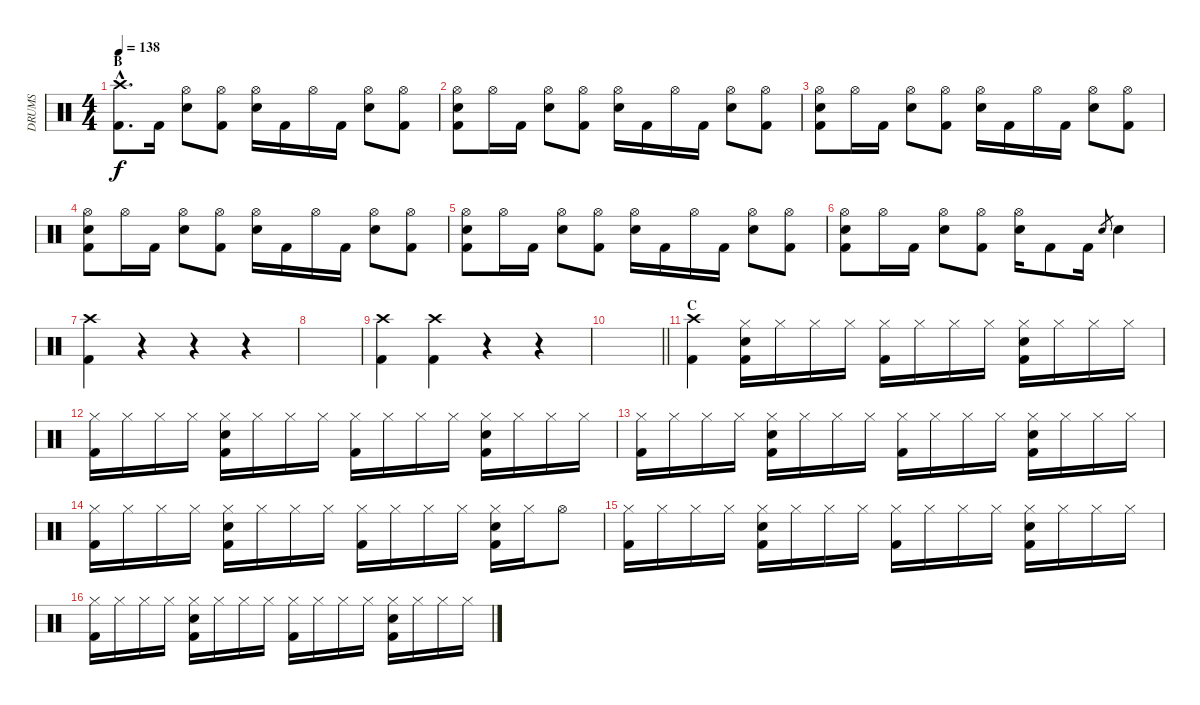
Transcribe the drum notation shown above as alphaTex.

\track ("DRUMS" "DRUMS") {instrument percussion}
\staff {score}
\articulation defaults
\ts (4 4)
\section ("" "B")
\tempo 138
\clef neutral
\ks c
("Crash high (hit)"{hac} "Kick (hit) 2"{hac}).8{d dy f} "Kick (hit) 2".16 ("Hi-Hat (open)" "Snare (hit) 2").8 ("Hi-Hat (open)" "Kick (hit) 2").8 ("Hi-Hat (open)" "Snare (hit) 2").16 "Kick (hit) 2".16 "Hi-Hat (open)".16 "Kick (hit) 2".16 ("Hi-Hat (open)" "Snare (hit) 2").8 ("Hi-Hat (open)" "Kick (hit) 2").8 |
("Hi-Hat (open)" "Snare (hit) 2" "Kick (hit) 2").8 "Hi-Hat (open)".16 "Kick (hit) 2".16 ("Hi-Hat (open)" "Snare (hit) 2").8 ("Hi-Hat (open)" "Kick (hit) 2").8 ("Hi-Hat (open)" "Snare (hit) 2").16 "Kick (hit) 2".16 "Hi-Hat (open)".16 "Kick (hit) 2".16 ("Hi-Hat (open)" "Snare (hit) 2").8 ("Hi-Hat (open)" "Kick (hit) 2").8 |
("Hi-Hat (open)" "Snare (hit) 2" "Kick (hit) 2").8 "Hi-Hat (open)".16 "Kick (hit) 2".16 ("Hi-Hat (open)" "Snare (hit) 2").8 ("Hi-Hat (open)" "Kick (hit) 2").8 ("Hi-Hat (open)" "Snare (hit) 2").16 "Kick (hit) 2".16 "Hi-Hat (open)".16 "Kick (hit) 2".16 ("Hi-Hat (open)" "Snare (hit) 2").8 ("Hi-Hat (open)" "Kick (hit) 2").8 |
("Hi-Hat (open)" "Snare (hit) 2" "Kick (hit) 2").8 "Hi-Hat (open)".16 "Kick (hit) 2".16 ("Hi-Hat (open)" "Snare (hit) 2").8 ("Hi-Hat (open)" "Kick (hit) 2").8 ("Hi-Hat (open)" "Snare (hit) 2").16 "Kick (hit) 2".16 "Hi-Hat (open)".16 "Kick (hit) 2".16 ("Hi-Hat (open)" "Snare (hit) 2").8 ("Hi-Hat (open)" "Kick (hit) 2").8 |
("Hi-Hat (open)" "Snare (hit) 2" "Kick (hit) 2").8 "Hi-Hat (open)".16 "Kick (hit) 2".16 ("Hi-Hat (open)" "Snare (hit) 2").8 ("Hi-Hat (open)" "Kick (hit) 2").8 ("Hi-Hat (open)" "Snare (hit) 2").16 "Kick (hit) 2".16 "Hi-Hat (open)".16 "Kick (hit) 2".16 ("Hi-Hat (open)" "Snare (hit) 2").8 ("Hi-Hat (open)" "Kick (hit) 2").8 |
("Hi-Hat (open)" "Snare (hit) 2" "Kick (hit) 2").8 "Hi-Hat (open)".16 "Kick (hit) 2".16 ("Hi-Hat (open)" "Snare (hit) 2").8 ("Hi-Hat (open)" "Kick (hit) 2").8 ("Hi-Hat (open)" "Snare (hit) 2").16 "Kick (hit) 2".8 "Kick (hit) 2".16 "Snare (hit) 2".8{gr} "Snare (hit) 2".4 |
("Crash high (hit)" "Kick (hit) 2").4 r.4 r.4 r.4 |
|
("Crash high (hit)" "Kick (hit) 2").4 ("Crash high (hit)" "Kick (hit) 2").4 r.4 r.4 |
\barLineRight lightlight
|
\section ("" "C")
("Crash high (hit)" "Kick (hit) 2").4 ("Hi-Hat (closed)" "Kick (hit) 2" "Snare (hit) 2").16 "Hi-Hat (closed)".16 "Hi-Hat (closed)".16 "Hi-Hat (closed)".16 ("Hi-Hat (closed)" "Kick (hit) 2").16 "Hi-Hat (closed)".16 "Hi-Hat (closed)".16 "Hi-Hat (closed)".16 ("Hi-Hat (closed)" "Kick (hit) 2" "Snare (hit) 2").16 "Hi-Hat (closed)".16 "Hi-Hat (closed)".16 "Hi-Hat (closed)".16 |
("Hi-Hat (closed)" "Kick (hit) 2").16 "Hi-Hat (closed)".16 "Hi-Hat (closed)".16 "Hi-Hat (closed)".16 ("Hi-Hat (closed)" "Kick (hit) 2" "Snare (hit) 2").16 "Hi-Hat (closed)".16 "Hi-Hat (closed)".16 "Hi-Hat (closed)".16 ("Hi-Hat (closed)" "Kick (hit) 2").16 "Hi-Hat (closed)".16 "Hi-Hat (closed)".16 "Hi-Hat (closed)".16 ("Hi-Hat (closed)" "Kick (hit) 2" "Snare (hit) 2").16 "Hi-Hat (closed)".16 "Hi-Hat (closed)".16 "Hi-Hat (closed)".16 |
("Hi-Hat (closed)" "Kick (hit) 2").16 "Hi-Hat (closed)".16 "Hi-Hat (closed)".16 "Hi-Hat (closed)".16 ("Hi-Hat (closed)" "Kick (hit) 2" "Snare (hit) 2").16 "Hi-Hat (closed)".16 "Hi-Hat (closed)".16 "Hi-Hat (closed)".16 ("Hi-Hat (closed)" "Kick (hit) 2").16 "Hi-Hat (closed)".16 "Hi-Hat (closed)".16 "Hi-Hat (closed)".16 ("Hi-Hat (closed)" "Kick (hit) 2" "Snare (hit) 2").16 "Hi-Hat (closed)".16 "Hi-Hat (closed)".16 "Hi-Hat (closed)".16 |
("Hi-Hat (closed)" "Kick (hit) 2").16 "Hi-Hat (closed)".16 "Hi-Hat (closed)".16 "Hi-Hat (closed)".16 ("Hi-Hat (closed)" "Kick (hit) 2" "Snare (hit) 2").16 "Hi-Hat (closed)".16 "Hi-Hat (closed)".16 "Hi-Hat (closed)".16 ("Hi-Hat (closed)" "Kick (hit) 2").16 "Hi-Hat (closed)".16 "Hi-Hat (closed)".16 "Hi-Hat (closed)".16 ("Hi-Hat (closed)" "Kick (hit) 2" "Snare (hit) 2").16 "Hi-Hat (closed)".16 "Hi-Hat (open)".8 |
("Hi-Hat (closed)" "Kick (hit) 2").16 "Hi-Hat (closed)".16 "Hi-Hat (closed)".16 "Hi-Hat (closed)".16 ("Hi-Hat (closed)" "Kick (hit) 2" "Snare (hit) 2").16 "Hi-Hat (closed)".16 "Hi-Hat (closed)".16 "Hi-Hat (closed)".16 ("Hi-Hat (closed)" "Kick (hit) 2").16 "Hi-Hat (closed)".16 "Hi-Hat (closed)".16 "Hi-Hat (closed)".16 ("Hi-Hat (closed)" "Kick (hit) 2" "Snare (hit) 2").16 "Hi-Hat (closed)".16 "Hi-Hat (closed)".16 "Hi-Hat (closed)".16 |
("Hi-Hat (closed)" "Kick (hit) 2").16 "Hi-Hat (closed)".16 "Hi-Hat (closed)".16 "Hi-Hat (closed)".16 ("Hi-Hat (closed)" "Kick (hit) 2" "Snare (hit) 2").16 "Hi-Hat (closed)".16 "Hi-Hat (closed)".16 "Hi-Hat (closed)".16 ("Hi-Hat (closed)" "Kick (hit) 2").16 "Hi-Hat (closed)".16 "Hi-Hat (closed)".16 "Hi-Hat (closed)".16 ("Hi-Hat (closed)" "Kick (hit) 2" "Snare (hit) 2").16 "Hi-Hat (closed)".16 "Hi-Hat (closed)".16 "Hi-Hat (closed)".16
